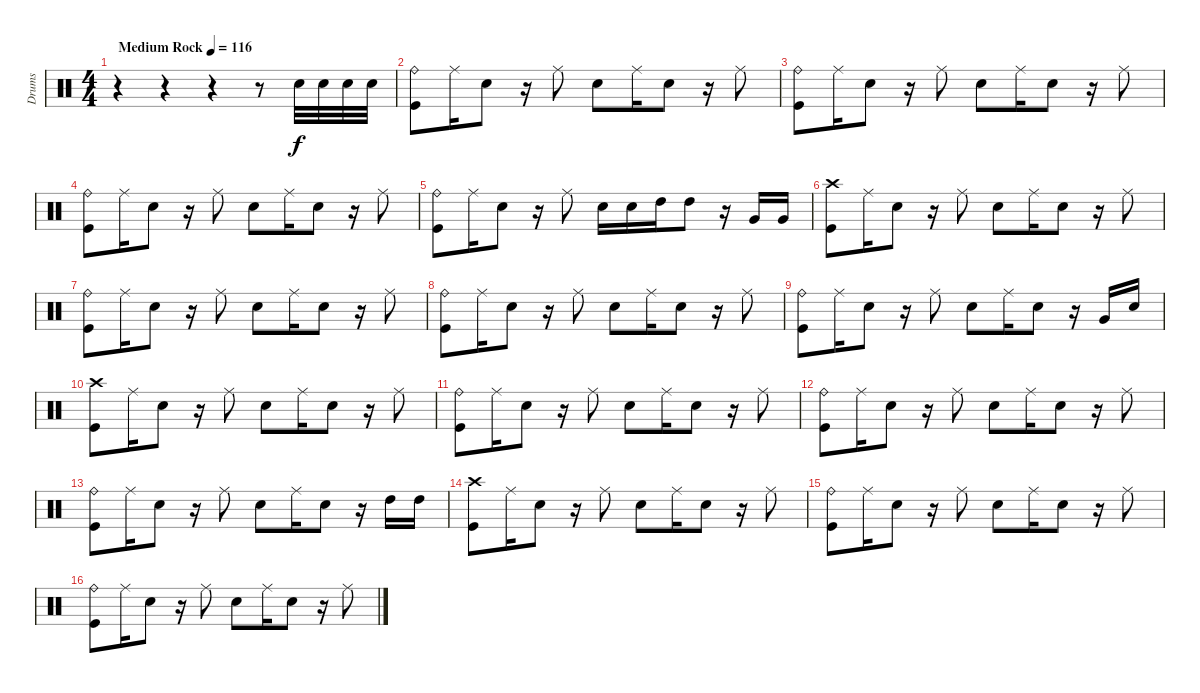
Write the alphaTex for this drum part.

\track ("Drums" "Drums") {instrument percussion}
\staff {score}
\articulation defaults
\ts (4 4)
\tempo (116 "Medium Rock")
\clef neutral
\ks c
r.4{dy f} r.4 r.4 r.8 "Snare (hit) 2".32 "Snare (hit) 2".32 "Snare (hit) 2".32 "Snare (hit) 2".32 |
("Ride (bell)" "Kick (hit)").8 "Ride (middle)".16 "Snare (hit) 2".8 r.16 "Ride (middle)".8 "Snare (hit) 2".8 "Ride (middle)".16 "Snare (hit) 2".8 r.16 "Ride (middle)".8 |
("Ride (bell)" "Kick (hit)").8 "Ride (middle)".16 "Snare (hit) 2".8 r.16 "Ride (middle)".8 "Snare (hit) 2".8 "Ride (middle)".16 "Snare (hit) 2".8 r.16 "Ride (middle)".8 |
("Ride (bell)" "Kick (hit)").8 "Ride (middle)".16 "Snare (hit) 2".8 r.16 "Ride (middle)".8 "Snare (hit) 2".8 "Ride (middle)".16 "Snare (hit) 2".8 r.16 "Ride (middle)".8 |
("Ride (bell)" "Kick (hit)").8 "Ride (middle)".16 "Snare (hit) 2".8 r.16 "Ride (middle)".8 "Snare (hit) 2".16 "Snare (hit) 2".16 "High Tom (hit)".16 "High Tom (hit)".8 r.16 "Very Low Tom (hit)".16 "Very Low Tom (hit)".16 |
("Crash high (hit)" "Kick (hit)").8 "Ride (middle)".16 "Snare (hit) 2".8 r.16 "Ride (middle)".8 "Snare (hit) 2".8 "Ride (middle)".16 "Snare (hit) 2".8 r.16 "Ride (middle)".8 |
("Ride (bell)" "Kick (hit)").8 "Ride (middle)".16 "Snare (hit) 2".8 r.16 "Ride (middle)".8 "Snare (hit) 2".8 "Ride (middle)".16 "Snare (hit) 2".8 r.16 "Ride (middle)".8 |
("Ride (bell)" "Kick (hit)").8 "Ride (middle)".16 "Snare (hit) 2".8 r.16 "Ride (middle)".8 "Snare (hit) 2".8 "Ride (middle)".16 "Snare (hit) 2".8 r.16 "Ride (middle)".8 |
("Ride (bell)" "Kick (hit)").8 "Ride (middle)".16 "Snare (hit) 2".8 r.16 "Ride (middle)".8 "Snare (hit) 2".8 "Ride (middle)".16 "Snare (hit) 2".8 r.16 "Very Low Tom (hit)".16 "Snare (hit) 2".16 |
("Crash high (hit)" "Kick (hit)").8 "Ride (middle)".16 "Snare (hit) 2".8 r.16 "Ride (middle)".8 "Snare (hit) 2".8 "Ride (middle)".16 "Snare (hit) 2".8 r.16 "Ride (middle)".8 |
("Ride (bell)" "Kick (hit)").8 "Ride (middle)".16 "Snare (hit) 2".8 r.16 "Ride (middle)".8 "Snare (hit) 2".8 "Ride (middle)".16 "Snare (hit) 2".8 r.16 "Ride (middle)".8 |
("Ride (bell)" "Kick (hit)").8 "Ride (middle)".16 "Snare (hit) 2".8 r.16 "Ride (middle)".8 "Snare (hit) 2".8 "Ride (middle)".16 "Snare (hit) 2".8 r.16 "Ride (middle)".8 |
("Ride (bell)" "Kick (hit)").8 "Ride (middle)".16 "Snare (hit) 2".8 r.16 "Ride (middle)".8 "Snare (hit) 2".8 "Ride (middle)".16 "Snare (hit) 2".8 r.16 "High Tom (hit)".16 "High Tom (hit)".16 |
("Crash high (hit)" "Kick (hit)").8 "Ride (middle)".16 "Snare (hit) 2".8 r.16 "Ride (middle)".8 "Snare (hit) 2".8 "Ride (middle)".16 "Snare (hit) 2".8 r.16 "Ride (middle)".8 |
("Ride (bell)" "Kick (hit)").8 "Ride (middle)".16 "Snare (hit) 2".8 r.16 "Ride (middle)".8 "Snare (hit) 2".8 "Ride (middle)".16 "Snare (hit) 2".8 r.16 "Ride (middle)".8 |
("Ride (bell)" "Kick (hit)").8 "Ride (middle)".16 "Snare (hit) 2".8 r.16 "Ride (middle)".8 "Snare (hit) 2".8 "Ride (middle)".16 "Snare (hit) 2".8 r.16 "Ride (middle)".8
